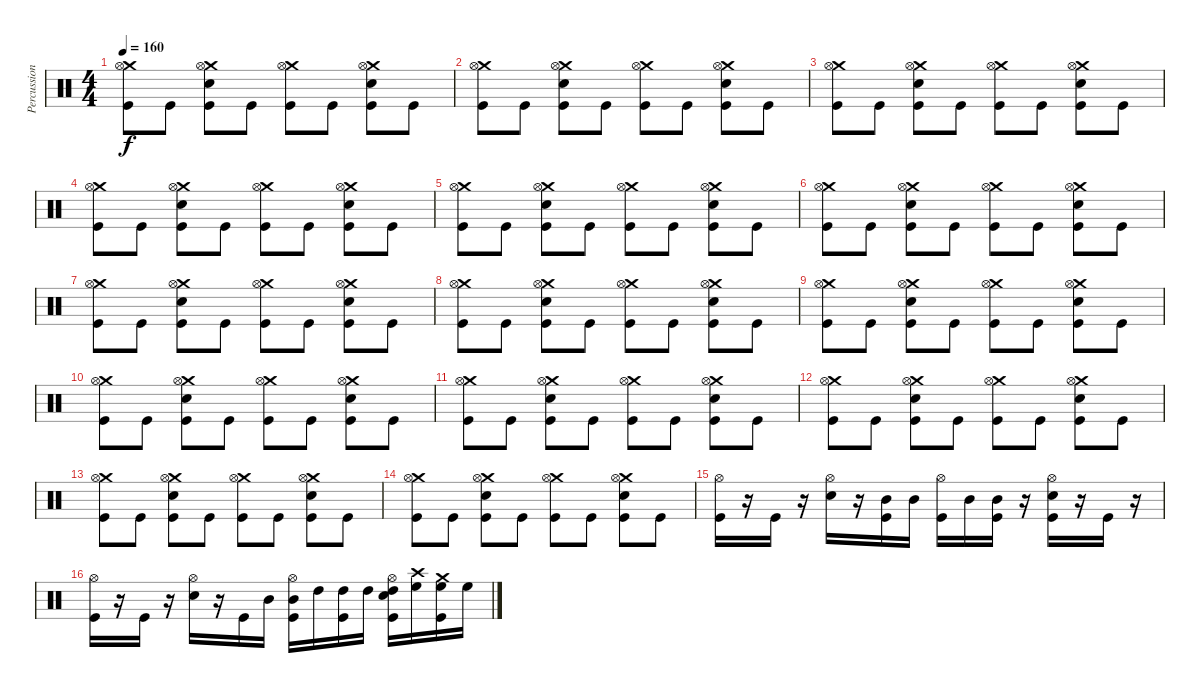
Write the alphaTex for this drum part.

\track ("Percussion" "Percussion") {instrument percussion}
\staff {score}
\articulation defaults
\ts (4 4)
\tempo 160
\clef neutral
\ks c
("Crash medium (hit)" "Hi-Hat (open)" "Kick (hit)").8{dy f} "Kick (hit)".8 ("Crash medium (hit)" "Snare (hit) 2" "Hi-Hat (open)" "Kick (hit)").8 "Kick (hit)".8 ("Crash medium (hit)" "Hi-Hat (open)" "Kick (hit)").8 "Kick (hit)".8 ("Crash medium (hit)" "Snare (hit) 2" "Hi-Hat (open)" "Kick (hit)").8 "Kick (hit)".8 |
("Crash medium (hit)" "Hi-Hat (open)" "Kick (hit)").8 "Kick (hit)".8 ("Crash medium (hit)" "Snare (hit) 2" "Hi-Hat (open)" "Kick (hit)").8 "Kick (hit)".8 ("Crash medium (hit)" "Hi-Hat (open)" "Kick (hit)").8 "Kick (hit)".8 ("Crash medium (hit)" "Snare (hit) 2" "Hi-Hat (open)" "Kick (hit)").8 "Kick (hit)".8 |
("Crash medium (hit)" "Hi-Hat (open)" "Kick (hit)").8 "Kick (hit)".8 ("Crash medium (hit)" "Snare (hit) 2" "Hi-Hat (open)" "Kick (hit)").8 "Kick (hit)".8 ("Crash medium (hit)" "Hi-Hat (open)" "Kick (hit)").8 "Kick (hit)".8 ("Crash medium (hit)" "Snare (hit) 2" "Hi-Hat (open)" "Kick (hit)").8 "Kick (hit)".8 |
("Crash medium (hit)" "Hi-Hat (open)" "Kick (hit)").8 "Kick (hit)".8 ("Crash medium (hit)" "Snare (hit) 2" "Hi-Hat (open)" "Kick (hit)").8 "Kick (hit)".8 ("Crash medium (hit)" "Hi-Hat (open)" "Kick (hit)").8 "Kick (hit)".8 ("Crash medium (hit)" "Snare (hit) 2" "Hi-Hat (open)" "Kick (hit)").8 "Kick (hit)".8 |
("Crash medium (hit)" "Hi-Hat (open)" "Kick (hit)").8 "Kick (hit)".8 ("Crash medium (hit)" "Snare (hit) 2" "Hi-Hat (open)" "Kick (hit)").8 "Kick (hit)".8 ("Crash medium (hit)" "Hi-Hat (open)" "Kick (hit)").8 "Kick (hit)".8 ("Crash medium (hit)" "Snare (hit) 2" "Hi-Hat (open)" "Kick (hit)").8 "Kick (hit)".8 |
("Crash medium (hit)" "Hi-Hat (open)" "Kick (hit)").8 "Kick (hit)".8 ("Crash medium (hit)" "Snare (hit) 2" "Hi-Hat (open)" "Kick (hit)").8 "Kick (hit)".8 ("Crash medium (hit)" "Hi-Hat (open)" "Kick (hit)").8 "Kick (hit)".8 ("Crash medium (hit)" "Snare (hit) 2" "Hi-Hat (open)" "Kick (hit)").8 "Kick (hit)".8 |
("Crash medium (hit)" "Hi-Hat (open)" "Kick (hit)").8 "Kick (hit)".8 ("Crash medium (hit)" "Snare (hit) 2" "Hi-Hat (open)" "Kick (hit)").8 "Kick (hit)".8 ("Crash medium (hit)" "Hi-Hat (open)" "Kick (hit)").8 "Kick (hit)".8 ("Crash medium (hit)" "Snare (hit) 2" "Hi-Hat (open)" "Kick (hit)").8 "Kick (hit)".8 |
("Crash medium (hit)" "Hi-Hat (open)" "Kick (hit)").8 "Kick (hit)".8 ("Crash medium (hit)" "Snare (hit) 2" "Hi-Hat (open)" "Kick (hit)").8 "Kick (hit)".8 ("Crash medium (hit)" "Hi-Hat (open)" "Kick (hit)").8 "Kick (hit)".8 ("Crash medium (hit)" "Snare (hit) 2" "Hi-Hat (open)" "Kick (hit)").8 "Kick (hit)".8 |
("Crash medium (hit)" "Hi-Hat (open)" "Kick (hit)").8 "Kick (hit)".8 ("Crash medium (hit)" "Snare (hit) 2" "Hi-Hat (open)" "Kick (hit)").8 "Kick (hit)".8 ("Crash medium (hit)" "Hi-Hat (open)" "Kick (hit)").8 "Kick (hit)".8 ("Crash medium (hit)" "Snare (hit) 2" "Hi-Hat (open)" "Kick (hit)").8 "Kick (hit)".8 |
("Crash medium (hit)" "Hi-Hat (open)" "Kick (hit)").8 "Kick (hit)".8 ("Crash medium (hit)" "Snare (hit) 2" "Hi-Hat (open)" "Kick (hit)").8 "Kick (hit)".8 ("Crash medium (hit)" "Hi-Hat (open)" "Kick (hit)").8 "Kick (hit)".8 ("Crash medium (hit)" "Snare (hit) 2" "Hi-Hat (open)" "Kick (hit)").8 "Kick (hit)".8 |
("Crash medium (hit)" "Hi-Hat (open)" "Kick (hit)").8 "Kick (hit)".8 ("Crash medium (hit)" "Snare (hit) 2" "Hi-Hat (open)" "Kick (hit)").8 "Kick (hit)".8 ("Crash medium (hit)" "Hi-Hat (open)" "Kick (hit)").8 "Kick (hit)".8 ("Crash medium (hit)" "Snare (hit) 2" "Hi-Hat (open)" "Kick (hit)").8 "Kick (hit)".8 |
("Crash medium (hit)" "Hi-Hat (open)" "Kick (hit)").8 "Kick (hit)".8 ("Crash medium (hit)" "Snare (hit) 2" "Hi-Hat (open)" "Kick (hit)").8 "Kick (hit)".8 ("Crash medium (hit)" "Hi-Hat (open)" "Kick (hit)").8 "Kick (hit)".8 ("Crash medium (hit)" "Snare (hit) 2" "Hi-Hat (open)" "Kick (hit)").8 "Kick (hit)".8 |
("Crash medium (hit)" "Hi-Hat (open)" "Kick (hit)").8 "Kick (hit)".8 ("Crash medium (hit)" "Snare (hit) 2" "Hi-Hat (open)" "Kick (hit)").8 "Kick (hit)".8 ("Crash medium (hit)" "Hi-Hat (open)" "Kick (hit)").8 "Kick (hit)".8 ("Crash medium (hit)" "Snare (hit) 2" "Hi-Hat (open)" "Kick (hit)").8 "Kick (hit)".8 |
("Crash medium (hit)" "Hi-Hat (open)" "Kick (hit)").8 "Kick (hit)".8 ("Crash medium (hit)" "Snare (hit) 2" "Hi-Hat (open)" "Kick (hit)").8 "Kick (hit)".8 ("Crash medium (hit)" "Hi-Hat (open)" "Kick (hit)").8 "Kick (hit)".8 ("Crash medium (hit)" "Snare (hit) 2" "Hi-Hat (open)" "Kick (hit)").8 "Kick (hit)".8 |
("Hi-Hat (open)" "Kick (hit)").16 r.16 "Kick (hit)".16 r.16 ("Snare (hit) 2" "Hi-Hat (open)").16 r.16 ("Mid Tom (hit)" "Kick (hit)").16 "Mid Tom (hit)".16 ("Hi-Hat (open)" "Kick (hit)").16 "Mid Tom (hit)".16 ("Mid Tom (hit)" "Kick (hit)").16 r.16 ("Snare (hit) 2" "Hi-Hat (open)" "Kick (hit)").16 r.16 "Kick (hit)".16 r.16 |
("Hi-Hat (open)" "Kick (hit)").16 r.16 "Kick (hit)".16 r.16 ("Snare (hit) 2" "Hi-Hat (open)").16 r.16 "Kick (hit)".16 "Mid Tom (hit)".16 ("Mid Tom (hit)" "Hi-Hat (open)" "Kick (hit)").16 "High Tom (hit)".16 ("High Tom (hit)" "Kick (hit)").16 "High Tom (hit)".16 ("High Tom (hit)" "Snare (hit) 2" "Hi-Hat (open)" "Kick (hit)").16 ("Crash high (hit)" "High Floor Tom (hit)").16 ("Crash medium (hit)" "High Floor Tom (hit)" "Kick (hit)").16 "High Floor Tom (hit)".16
